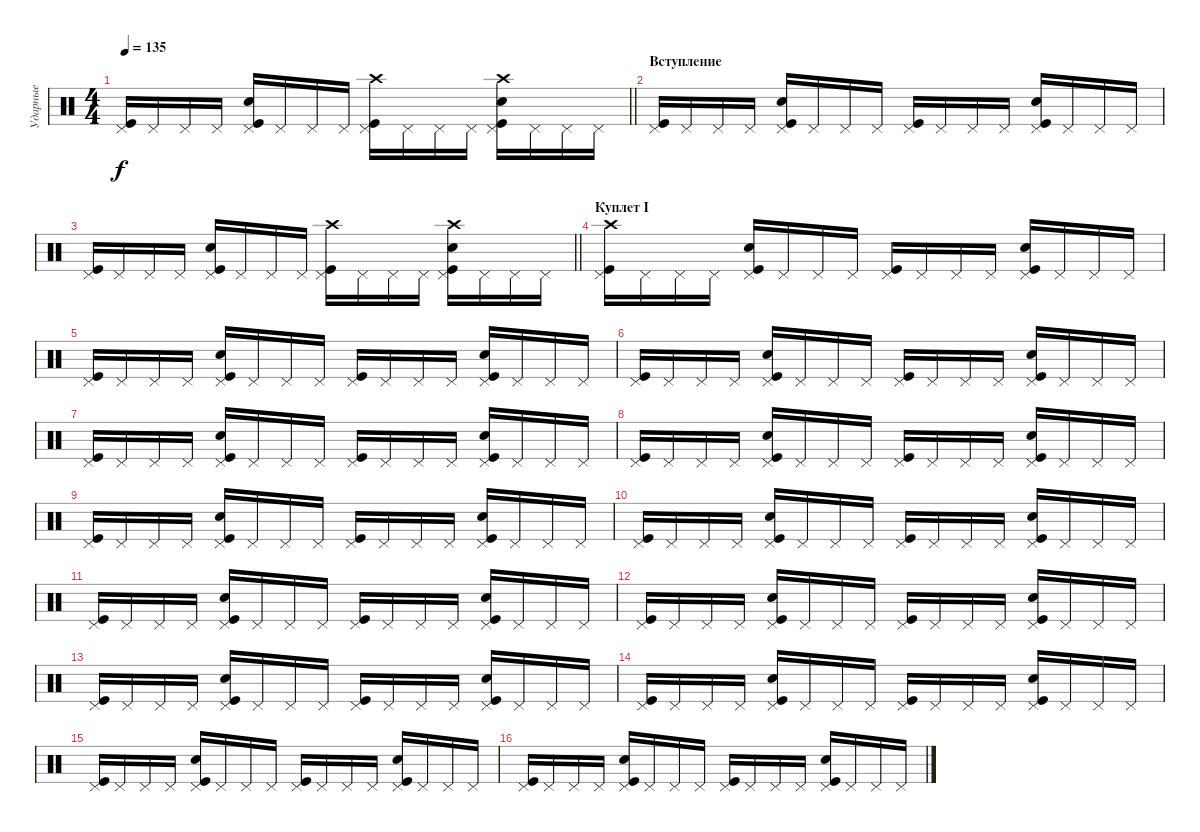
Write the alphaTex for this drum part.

\track ("Ударные" "Ударные") {instrument percussion}
\staff {score}
\articulation defaults
\ts (4 4)
\tempo 135
\clef neutral
\barLineRight lightlight
\ks c
("Kick (hit)" "Pedal Hi-Hat (hit)").16{dy f} "Pedal Hi-Hat (hit)".16 "Pedal Hi-Hat (hit)".16 "Pedal Hi-Hat (hit)".16 ("Kick (hit)" "Pedal Hi-Hat (hit)" "Snare (hit) 2").16 "Pedal Hi-Hat (hit)".16 "Pedal Hi-Hat (hit)".16 "Pedal Hi-Hat (hit)".16 ("Kick (hit)" "Pedal Hi-Hat (hit)" "Crash high (hit)").16 "Pedal Hi-Hat (hit)".16 "Pedal Hi-Hat (hit)".16 "Pedal Hi-Hat (hit)".16 ("Kick (hit)" "Pedal Hi-Hat (hit)" "Snare (hit) 2" "Crash high (hit)").16 "Pedal Hi-Hat (hit)".16 "Pedal Hi-Hat (hit)".16 "Pedal Hi-Hat (hit)".16 |
\section ("" "Вступление")
("Kick (hit)" "Pedal Hi-Hat (hit)").16 "Pedal Hi-Hat (hit)".16 "Pedal Hi-Hat (hit)".16 "Pedal Hi-Hat (hit)".16 ("Kick (hit)" "Pedal Hi-Hat (hit)" "Snare (hit) 2").16 "Pedal Hi-Hat (hit)".16 "Pedal Hi-Hat (hit)".16 "Pedal Hi-Hat (hit)".16 ("Kick (hit)" "Pedal Hi-Hat (hit)").16 "Pedal Hi-Hat (hit)".16 "Pedal Hi-Hat (hit)".16 "Pedal Hi-Hat (hit)".16 ("Kick (hit)" "Pedal Hi-Hat (hit)" "Snare (hit) 2").16 "Pedal Hi-Hat (hit)".16 "Pedal Hi-Hat (hit)".16 "Pedal Hi-Hat (hit)".16 |
\barLineRight lightlight
("Kick (hit)" "Pedal Hi-Hat (hit)").16 "Pedal Hi-Hat (hit)".16 "Pedal Hi-Hat (hit)".16 "Pedal Hi-Hat (hit)".16 ("Kick (hit)" "Pedal Hi-Hat (hit)" "Snare (hit) 2").16 "Pedal Hi-Hat (hit)".16 "Pedal Hi-Hat (hit)".16 "Pedal Hi-Hat (hit)".16 ("Kick (hit)" "Pedal Hi-Hat (hit)" "Crash high (hit)").16 "Pedal Hi-Hat (hit)".16 "Pedal Hi-Hat (hit)".16 "Pedal Hi-Hat (hit)".16 ("Kick (hit)" "Pedal Hi-Hat (hit)" "Snare (hit) 2" "Crash high (hit)").16 "Pedal Hi-Hat (hit)".16 "Pedal Hi-Hat (hit)".16 "Pedal Hi-Hat (hit)".16 |
\section ("" "Куплет I")
("Kick (hit)" "Pedal Hi-Hat (hit)" "Crash high (hit)").16 "Pedal Hi-Hat (hit)".16 "Pedal Hi-Hat (hit)".16 "Pedal Hi-Hat (hit)".16 ("Kick (hit)" "Pedal Hi-Hat (hit)" "Snare (hit) 2").16 "Pedal Hi-Hat (hit)".16 "Pedal Hi-Hat (hit)".16 "Pedal Hi-Hat (hit)".16 ("Kick (hit)" "Pedal Hi-Hat (hit)").16 "Pedal Hi-Hat (hit)".16 "Pedal Hi-Hat (hit)".16 "Pedal Hi-Hat (hit)".16 ("Kick (hit)" "Pedal Hi-Hat (hit)" "Snare (hit) 2").16 "Pedal Hi-Hat (hit)".16 "Pedal Hi-Hat (hit)".16 "Pedal Hi-Hat (hit)".16 |
("Kick (hit)" "Pedal Hi-Hat (hit)").16 "Pedal Hi-Hat (hit)".16 "Pedal Hi-Hat (hit)".16 "Pedal Hi-Hat (hit)".16 ("Kick (hit)" "Pedal Hi-Hat (hit)" "Snare (hit) 2").16 "Pedal Hi-Hat (hit)".16 "Pedal Hi-Hat (hit)".16 "Pedal Hi-Hat (hit)".16 ("Kick (hit)" "Pedal Hi-Hat (hit)").16 "Pedal Hi-Hat (hit)".16 "Pedal Hi-Hat (hit)".16 "Pedal Hi-Hat (hit)".16 ("Kick (hit)" "Pedal Hi-Hat (hit)" "Snare (hit) 2").16 "Pedal Hi-Hat (hit)".16 "Pedal Hi-Hat (hit)".16 "Pedal Hi-Hat (hit)".16 |
("Kick (hit)" "Pedal Hi-Hat (hit)").16 "Pedal Hi-Hat (hit)".16 "Pedal Hi-Hat (hit)".16 "Pedal Hi-Hat (hit)".16 ("Kick (hit)" "Pedal Hi-Hat (hit)" "Snare (hit) 2").16 "Pedal Hi-Hat (hit)".16 "Pedal Hi-Hat (hit)".16 "Pedal Hi-Hat (hit)".16 ("Kick (hit)" "Pedal Hi-Hat (hit)").16 "Pedal Hi-Hat (hit)".16 "Pedal Hi-Hat (hit)".16 "Pedal Hi-Hat (hit)".16 ("Kick (hit)" "Pedal Hi-Hat (hit)" "Snare (hit) 2").16 "Pedal Hi-Hat (hit)".16 "Pedal Hi-Hat (hit)".16 "Pedal Hi-Hat (hit)".16 |
("Kick (hit)" "Pedal Hi-Hat (hit)").16 "Pedal Hi-Hat (hit)".16 "Pedal Hi-Hat (hit)".16 "Pedal Hi-Hat (hit)".16 ("Kick (hit)" "Pedal Hi-Hat (hit)" "Snare (hit) 2").16 "Pedal Hi-Hat (hit)".16 "Pedal Hi-Hat (hit)".16 "Pedal Hi-Hat (hit)".16 ("Kick (hit)" "Pedal Hi-Hat (hit)").16 "Pedal Hi-Hat (hit)".16 "Pedal Hi-Hat (hit)".16 "Pedal Hi-Hat (hit)".16 ("Kick (hit)" "Pedal Hi-Hat (hit)" "Snare (hit) 2").16 "Pedal Hi-Hat (hit)".16 "Pedal Hi-Hat (hit)".16 "Pedal Hi-Hat (hit)".16 |
("Kick (hit)" "Pedal Hi-Hat (hit)").16 "Pedal Hi-Hat (hit)".16 "Pedal Hi-Hat (hit)".16 "Pedal Hi-Hat (hit)".16 ("Kick (hit)" "Pedal Hi-Hat (hit)" "Snare (hit) 2").16 "Pedal Hi-Hat (hit)".16 "Pedal Hi-Hat (hit)".16 "Pedal Hi-Hat (hit)".16 ("Kick (hit)" "Pedal Hi-Hat (hit)").16 "Pedal Hi-Hat (hit)".16 "Pedal Hi-Hat (hit)".16 "Pedal Hi-Hat (hit)".16 ("Kick (hit)" "Pedal Hi-Hat (hit)" "Snare (hit) 2").16 "Pedal Hi-Hat (hit)".16 "Pedal Hi-Hat (hit)".16 "Pedal Hi-Hat (hit)".16 |
("Kick (hit)" "Pedal Hi-Hat (hit)").16 "Pedal Hi-Hat (hit)".16 "Pedal Hi-Hat (hit)".16 "Pedal Hi-Hat (hit)".16 ("Kick (hit)" "Pedal Hi-Hat (hit)" "Snare (hit) 2").16 "Pedal Hi-Hat (hit)".16 "Pedal Hi-Hat (hit)".16 "Pedal Hi-Hat (hit)".16 ("Kick (hit)" "Pedal Hi-Hat (hit)").16 "Pedal Hi-Hat (hit)".16 "Pedal Hi-Hat (hit)".16 "Pedal Hi-Hat (hit)".16 ("Kick (hit)" "Pedal Hi-Hat (hit)" "Snare (hit) 2").16 "Pedal Hi-Hat (hit)".16 "Pedal Hi-Hat (hit)".16 "Pedal Hi-Hat (hit)".16 |
("Kick (hit)" "Pedal Hi-Hat (hit)").16 "Pedal Hi-Hat (hit)".16 "Pedal Hi-Hat (hit)".16 "Pedal Hi-Hat (hit)".16 ("Kick (hit)" "Pedal Hi-Hat (hit)" "Snare (hit) 2").16 "Pedal Hi-Hat (hit)".16 "Pedal Hi-Hat (hit)".16 "Pedal Hi-Hat (hit)".16 ("Kick (hit)" "Pedal Hi-Hat (hit)").16 "Pedal Hi-Hat (hit)".16 "Pedal Hi-Hat (hit)".16 "Pedal Hi-Hat (hit)".16 ("Kick (hit)" "Pedal Hi-Hat (hit)" "Snare (hit) 2").16 "Pedal Hi-Hat (hit)".16 "Pedal Hi-Hat (hit)".16 "Pedal Hi-Hat (hit)".16 |
("Kick (hit)" "Pedal Hi-Hat (hit)").16 "Pedal Hi-Hat (hit)".16 "Pedal Hi-Hat (hit)".16 "Pedal Hi-Hat (hit)".16 ("Kick (hit)" "Pedal Hi-Hat (hit)" "Snare (hit) 2").16 "Pedal Hi-Hat (hit)".16 "Pedal Hi-Hat (hit)".16 "Pedal Hi-Hat (hit)".16 ("Kick (hit)" "Pedal Hi-Hat (hit)").16 "Pedal Hi-Hat (hit)".16 "Pedal Hi-Hat (hit)".16 "Pedal Hi-Hat (hit)".16 ("Kick (hit)" "Pedal Hi-Hat (hit)" "Snare (hit) 2").16 "Pedal Hi-Hat (hit)".16 "Pedal Hi-Hat (hit)".16 "Pedal Hi-Hat (hit)".16 |
("Kick (hit)" "Pedal Hi-Hat (hit)").16 "Pedal Hi-Hat (hit)".16 "Pedal Hi-Hat (hit)".16 "Pedal Hi-Hat (hit)".16 ("Kick (hit)" "Pedal Hi-Hat (hit)" "Snare (hit) 2").16 "Pedal Hi-Hat (hit)".16 "Pedal Hi-Hat (hit)".16 "Pedal Hi-Hat (hit)".16 ("Kick (hit)" "Pedal Hi-Hat (hit)").16 "Pedal Hi-Hat (hit)".16 "Pedal Hi-Hat (hit)".16 "Pedal Hi-Hat (hit)".16 ("Kick (hit)" "Pedal Hi-Hat (hit)" "Snare (hit) 2").16 "Pedal Hi-Hat (hit)".16 "Pedal Hi-Hat (hit)".16 "Pedal Hi-Hat (hit)".16 |
("Kick (hit)" "Pedal Hi-Hat (hit)").16 "Pedal Hi-Hat (hit)".16 "Pedal Hi-Hat (hit)".16 "Pedal Hi-Hat (hit)".16 ("Kick (hit)" "Pedal Hi-Hat (hit)" "Snare (hit) 2").16 "Pedal Hi-Hat (hit)".16 "Pedal Hi-Hat (hit)".16 "Pedal Hi-Hat (hit)".16 ("Kick (hit)" "Pedal Hi-Hat (hit)").16 "Pedal Hi-Hat (hit)".16 "Pedal Hi-Hat (hit)".16 "Pedal Hi-Hat (hit)".16 ("Kick (hit)" "Pedal Hi-Hat (hit)" "Snare (hit) 2").16 "Pedal Hi-Hat (hit)".16 "Pedal Hi-Hat (hit)".16 "Pedal Hi-Hat (hit)".16 |
("Kick (hit)" "Pedal Hi-Hat (hit)").16 "Pedal Hi-Hat (hit)".16 "Pedal Hi-Hat (hit)".16 "Pedal Hi-Hat (hit)".16 ("Kick (hit)" "Pedal Hi-Hat (hit)" "Snare (hit) 2").16 "Pedal Hi-Hat (hit)".16 "Pedal Hi-Hat (hit)".16 "Pedal Hi-Hat (hit)".16 ("Kick (hit)" "Pedal Hi-Hat (hit)").16 "Pedal Hi-Hat (hit)".16 "Pedal Hi-Hat (hit)".16 "Pedal Hi-Hat (hit)".16 ("Kick (hit)" "Pedal Hi-Hat (hit)" "Snare (hit) 2").16 "Pedal Hi-Hat (hit)".16 "Pedal Hi-Hat (hit)".16 "Pedal Hi-Hat (hit)".16 |
("Kick (hit)" "Pedal Hi-Hat (hit)").16 "Pedal Hi-Hat (hit)".16 "Pedal Hi-Hat (hit)".16 "Pedal Hi-Hat (hit)".16 ("Kick (hit)" "Pedal Hi-Hat (hit)" "Snare (hit) 2").16 "Pedal Hi-Hat (hit)".16 "Pedal Hi-Hat (hit)".16 "Pedal Hi-Hat (hit)".16 ("Kick (hit)" "Pedal Hi-Hat (hit)").16 "Pedal Hi-Hat (hit)".16 "Pedal Hi-Hat (hit)".16 "Pedal Hi-Hat (hit)".16 ("Kick (hit)" "Pedal Hi-Hat (hit)" "Snare (hit) 2").16 "Pedal Hi-Hat (hit)".16 "Pedal Hi-Hat (hit)".16 "Pedal Hi-Hat (hit)".16 |
("Kick (hit)" "Pedal Hi-Hat (hit)").16 "Pedal Hi-Hat (hit)".16 "Pedal Hi-Hat (hit)".16 "Pedal Hi-Hat (hit)".16 ("Kick (hit)" "Pedal Hi-Hat (hit)" "Snare (hit) 2").16 "Pedal Hi-Hat (hit)".16 "Pedal Hi-Hat (hit)".16 "Pedal Hi-Hat (hit)".16 ("Kick (hit)" "Pedal Hi-Hat (hit)").16 "Pedal Hi-Hat (hit)".16 "Pedal Hi-Hat (hit)".16 "Pedal Hi-Hat (hit)".16 ("Kick (hit)" "Pedal Hi-Hat (hit)" "Snare (hit) 2").16 "Pedal Hi-Hat (hit)".16 "Pedal Hi-Hat (hit)".16 "Pedal Hi-Hat (hit)".16
